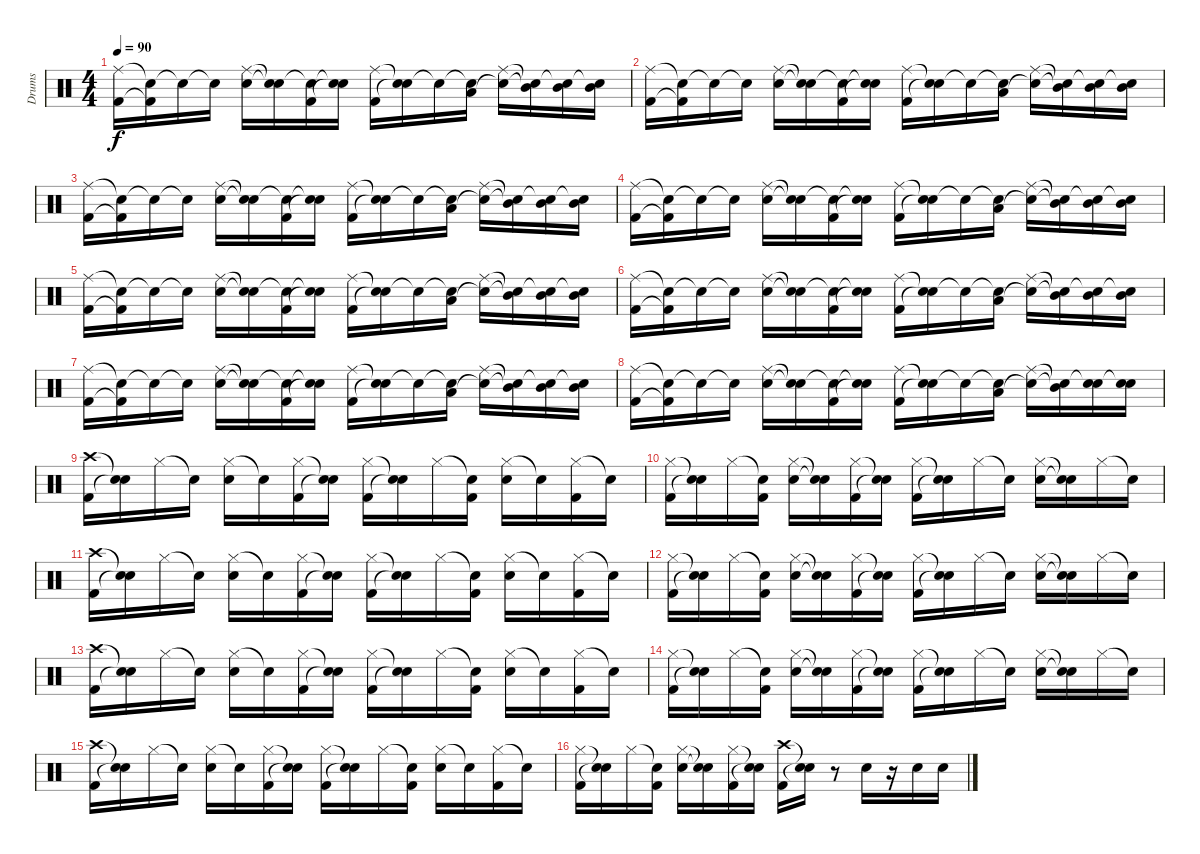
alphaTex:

\track ("Drums" "Drums") {instrument percussion}
\staff {score}
\articulation defaults
\ts (4 4)
\tempo 90
\clef neutral
\ks c
("Ride (middle)" "Kick (hit) 2").16{dy f} ("Snare (hit)"{t} "Kick (hit) 2"{t}).16 "Snare (hit)"{t}.16 "Snare (hit)"{t}.16 ("Ride (middle)" "Snare (hit) 2").16 ("Snare (hit)"{t} "Snare (hit)"{t}).16 ("Snare (hit)"{t} "Kick (hit) 2").16 ("Snare (hit)"{t} "Snare (hit)"{t}).16 ("Ride (middle)" "Kick (hit) 2").16 ("Snare (hit)"{t} "Snare (hit)"{t}).16 "Snare (hit)"{t}.16 ("Snare (hit)"{t} "Low Tom (hit)").16 ("Ride (middle)" "Snare (hit)"{t}).16 ("Snare (hit)"{t} "Mid Tom (hit)"{t}).16 ("Snare (hit)"{t} "Mid Tom (hit)").16 ("Snare (hit)"{t} "Mid Tom (hit)").16 |
("Ride (middle)" "Kick (hit) 2").16 ("Snare (hit)"{t} "Kick (hit) 2"{t}).16 "Snare (hit)"{t}.16 "Snare (hit)"{t}.16 ("Ride (middle)" "Snare (hit) 2").16 ("Snare (hit)"{t} "Snare (hit)"{t}).16 ("Snare (hit)"{t} "Kick (hit) 2").16 ("Snare (hit)"{t} "Snare (hit)"{t}).16 ("Ride (middle)" "Kick (hit) 2").16 ("Snare (hit)"{t} "Snare (hit)"{t}).16 "Snare (hit)"{t}.16 ("Snare (hit)"{t} "Low Tom (hit)").16 ("Ride (middle)" "Snare (hit)"{t}).16 ("Snare (hit)"{t} "Mid Tom (hit)"{t}).16 ("Snare (hit)"{t} "Mid Tom (hit)").16 ("Snare (hit)"{t} "Mid Tom (hit)").16 |
("Ride (middle)" "Kick (hit) 2").16 ("Snare (hit)"{t} "Kick (hit) 2"{t}).16 "Snare (hit)"{t}.16 "Snare (hit)"{t}.16 ("Ride (middle)" "Snare (hit) 2").16 ("Snare (hit)"{t} "Snare (hit)"{t}).16 ("Snare (hit)"{t} "Kick (hit) 2").16 ("Snare (hit)"{t} "Snare (hit)"{t}).16 ("Ride (middle)" "Kick (hit) 2").16 ("Snare (hit)"{t} "Snare (hit)"{t}).16 "Snare (hit)"{t}.16 ("Snare (hit)"{t} "Low Tom (hit)").16 ("Ride (middle)" "Snare (hit)"{t}).16 ("Snare (hit)"{t} "Mid Tom (hit)"{t}).16 ("Snare (hit)"{t} "Mid Tom (hit)").16 ("Snare (hit)"{t} "Mid Tom (hit)").16 |
("Ride (middle)" "Kick (hit) 2").16 ("Snare (hit)"{t} "Kick (hit) 2"{t}).16 "Snare (hit)"{t}.16 "Snare (hit)"{t}.16 ("Ride (middle)" "Snare (hit) 2").16 ("Snare (hit)"{t} "Snare (hit)"{t}).16 ("Snare (hit)"{t} "Kick (hit) 2").16 ("Snare (hit)"{t} "Snare (hit)"{t}).16 ("Ride (middle)" "Kick (hit) 2").16 ("Snare (hit)"{t} "Snare (hit)"{t}).16 "Snare (hit)"{t}.16 ("Snare (hit)"{t} "Low Tom (hit)").16 ("Ride (middle)" "Snare (hit)"{t}).16 ("Snare (hit)"{t} "Mid Tom (hit)"{t}).16 ("Snare (hit)"{t} "Mid Tom (hit)").16 ("Snare (hit)"{t} "Mid Tom (hit)").16 |
("Ride (middle)" "Kick (hit) 2").16 ("Snare (hit)"{t} "Kick (hit) 2"{t}).16 "Snare (hit)"{t}.16 "Snare (hit)"{t}.16 ("Ride (middle)" "Snare (hit) 2").16 ("Snare (hit)"{t} "Snare (hit)"{t}).16 ("Snare (hit)"{t} "Kick (hit) 2").16 ("Snare (hit)"{t} "Snare (hit)"{t}).16 ("Ride (middle)" "Kick (hit) 2").16 ("Snare (hit)"{t} "Snare (hit)"{t}).16 "Snare (hit)"{t}.16 ("Snare (hit)"{t} "Low Tom (hit)").16 ("Ride (middle)" "Snare (hit)"{t}).16 ("Snare (hit)"{t} "Mid Tom (hit)"{t}).16 ("Snare (hit)"{t} "Mid Tom (hit)").16 ("Snare (hit)"{t} "Mid Tom (hit)").16 |
("Ride (middle)" "Kick (hit) 2").16 ("Snare (hit)"{t} "Kick (hit) 2"{t}).16 "Snare (hit)"{t}.16 "Snare (hit)"{t}.16 ("Ride (middle)" "Snare (hit) 2").16 ("Snare (hit)"{t} "Snare (hit)"{t}).16 ("Snare (hit)"{t} "Kick (hit) 2").16 ("Snare (hit)"{t} "Snare (hit)"{t}).16 ("Ride (middle)" "Kick (hit) 2").16 ("Snare (hit)"{t} "Snare (hit)"{t}).16 "Snare (hit)"{t}.16 ("Snare (hit)"{t} "Low Tom (hit)").16 ("Ride (middle)" "Snare (hit)"{t}).16 ("Snare (hit)"{t} "Mid Tom (hit)"{t}).16 ("Snare (hit)"{t} "Mid Tom (hit)").16 ("Snare (hit)"{t} "Mid Tom (hit)").16 |
("Ride (middle)" "Kick (hit) 2").16 ("Snare (hit)"{t} "Kick (hit) 2"{t}).16 "Snare (hit)"{t}.16 "Snare (hit)"{t}.16 ("Ride (middle)" "Snare (hit) 2").16 ("Snare (hit)"{t} "Snare (hit)"{t}).16 ("Snare (hit)"{t} "Kick (hit) 2").16 ("Snare (hit)"{t} "Snare (hit)"{t}).16 ("Ride (middle)" "Kick (hit) 2").16 ("Snare (hit)"{t} "Snare (hit)"{t}).16 "Snare (hit)"{t}.16 ("Snare (hit)"{t} "Low Tom (hit)").16 ("Ride (middle)" "Snare (hit)"{t}).16 ("Snare (hit)"{t} "Mid Tom (hit)"{t}).16 ("Snare (hit)"{t} "Mid Tom (hit)").16 ("Snare (hit)"{t} "Mid Tom (hit)").16 |
("Ride (middle)" "Kick (hit) 2").16 ("Snare (hit)"{t} "Kick (hit) 2"{t}).16 "Snare (hit)"{t}.16 "Snare (hit)"{t}.16 ("Ride (middle)" "Snare (hit) 2").16 ("Snare (hit)"{t} "Snare (hit)"{t}).16 ("Snare (hit)"{t} "Kick (hit) 2").16 ("Snare (hit)"{t} "Snare (hit)"{t}).16 ("Ride (middle)" "Kick (hit) 2").16 ("Snare (hit)"{t} "Snare (hit)"{t}).16 "Snare (hit)"{t}.16 ("Snare (hit)"{t} "Low Tom (hit)").16 ("Ride (middle)" "Snare (hit)"{t}).16 ("Snare (hit)"{t} "Mid Tom (hit)"{t}).16 ("Snare (hit)"{t} "Snare (hit) 2").16 ("Snare (hit)"{t} "Snare (hit) 2").16 |
("Crash high (hit)" "Kick (hit) 2").16 ("Snare (hit)"{t} "Snare (hit)"{t}).16 "Hi-Hat (closed)".16 "Snare (hit)"{t}.16 ("Hi-Hat (closed)" "Snare (hit) 2").16 "Snare (hit)"{t}.16 ("Hi-Hat (closed)" "Kick (hit) 2").16 ("Snare (hit)"{t} "Snare (hit)"{t}).16 ("Hi-Hat (closed)" "Kick (hit) 2").16 ("Snare (hit)"{t} "Snare (hit)"{t}).16 "Hi-Hat (closed)".16 ("Snare (hit)"{t} "Kick (hit) 2").16 ("Hi-Hat (closed)" "Snare (hit) 2").16 "Snare (hit)"{t}.16 ("Hi-Hat (closed)" "Kick (hit) 2").16 "Snare (hit)"{t}.16 |
("Hi-Hat (closed)" "Kick (hit) 2").16 ("Snare (hit)"{t} "Snare (hit)"{t}).16 "Hi-Hat (closed)".16 ("Snare (hit)"{t} "Kick (hit) 2").16 ("Hi-Hat (closed)" "Snare (hit) 2").16 ("Snare (hit)"{t} "Snare (hit)"{t}).16 ("Hi-Hat (closed)" "Kick (hit) 2").16 ("Snare (hit)"{t} "Snare (hit)"{t}).16 ("Hi-Hat (closed)" "Kick (hit) 2").16 ("Snare (hit)"{t} "Snare (hit)"{t}).16 "Hi-Hat (closed)".16 "Snare (hit)"{t}.16 ("Hi-Hat (closed)" "Snare (hit) 2").16 ("Snare (hit)"{t} "Snare (hit)"{t}).16 "Hi-Hat (closed)".16 "Snare (hit)"{t}.16 |
("Crash high (hit)" "Kick (hit) 2").16 ("Snare (hit)"{t} "Snare (hit)"{t}).16 "Hi-Hat (closed)".16 "Snare (hit)"{t}.16 ("Hi-Hat (closed)" "Snare (hit) 2").16 "Snare (hit)"{t}.16 ("Hi-Hat (closed)" "Kick (hit) 2").16 ("Snare (hit)"{t} "Snare (hit)"{t}).16 ("Hi-Hat (closed)" "Kick (hit) 2").16 ("Snare (hit)"{t} "Snare (hit)"{t}).16 "Hi-Hat (closed)".16 ("Snare (hit)"{t} "Kick (hit) 2").16 ("Hi-Hat (closed)" "Snare (hit) 2").16 "Snare (hit)"{t}.16 ("Hi-Hat (closed)" "Kick (hit) 2").16 "Snare (hit)"{t}.16 |
("Hi-Hat (closed)" "Kick (hit) 2").16 ("Snare (hit)"{t} "Snare (hit)"{t}).16 "Hi-Hat (closed)".16 ("Snare (hit)"{t} "Kick (hit) 2").16 ("Hi-Hat (closed)" "Snare (hit) 2").16 ("Snare (hit)"{t} "Snare (hit)"{t}).16 ("Hi-Hat (closed)" "Kick (hit) 2").16 ("Snare (hit)"{t} "Snare (hit)"{t}).16 ("Hi-Hat (closed)" "Kick (hit) 2").16 ("Snare (hit)"{t} "Snare (hit)"{t}).16 "Hi-Hat (closed)".16 "Snare (hit)"{t}.16 ("Hi-Hat (closed)" "Snare (hit) 2").16 ("Snare (hit)"{t} "Snare (hit)"{t}).16 "Hi-Hat (closed)".16 "Snare (hit)"{t}.16 |
("Crash high (hit)" "Kick (hit) 2").16 ("Snare (hit)"{t} "Snare (hit)"{t}).16 "Hi-Hat (closed)".16 "Snare (hit)"{t}.16 ("Hi-Hat (closed)" "Snare (hit) 2").16 "Snare (hit)"{t}.16 ("Hi-Hat (closed)" "Kick (hit) 2").16 ("Snare (hit)"{t} "Snare (hit)"{t}).16 ("Hi-Hat (closed)" "Kick (hit) 2").16 ("Snare (hit)"{t} "Snare (hit)"{t}).16 "Hi-Hat (closed)".16 ("Snare (hit)"{t} "Kick (hit) 2").16 ("Hi-Hat (closed)" "Snare (hit) 2").16 "Snare (hit)"{t}.16 ("Hi-Hat (closed)" "Kick (hit) 2").16 "Snare (hit)"{t}.16 |
("Hi-Hat (closed)" "Kick (hit) 2").16 ("Snare (hit)"{t} "Snare (hit)"{t}).16 "Hi-Hat (closed)".16 ("Snare (hit)"{t} "Kick (hit) 2").16 ("Hi-Hat (closed)" "Snare (hit) 2").16 ("Snare (hit)"{t} "Snare (hit)"{t}).16 ("Hi-Hat (closed)" "Kick (hit) 2").16 ("Snare (hit)"{t} "Snare (hit)"{t}).16 ("Hi-Hat (closed)" "Kick (hit) 2").16 ("Snare (hit)"{t} "Snare (hit)"{t}).16 "Hi-Hat (closed)".16 "Snare (hit)"{t}.16 ("Hi-Hat (closed)" "Snare (hit) 2").16 ("Snare (hit)"{t} "Snare (hit)"{t}).16 "Hi-Hat (closed)".16 "Snare (hit)"{t}.16 |
("Crash high (hit)" "Kick (hit) 2").16 ("Snare (hit)"{t} "Snare (hit)"{t}).16 "Hi-Hat (closed)".16 "Snare (hit)"{t}.16 ("Hi-Hat (closed)" "Snare (hit) 2").16 "Snare (hit)"{t}.16 ("Hi-Hat (closed)" "Kick (hit) 2").16 ("Snare (hit)"{t} "Snare (hit)"{t}).16 ("Hi-Hat (closed)" "Kick (hit) 2").16 ("Snare (hit)"{t} "Snare (hit)"{t}).16 "Hi-Hat (closed)".16 ("Snare (hit)"{t} "Kick (hit) 2").16 ("Hi-Hat (closed)" "Snare (hit) 2").16 "Snare (hit)"{t}.16 ("Hi-Hat (closed)" "Kick (hit) 2").16 "Snare (hit)"{t}.16 |
("Hi-Hat (closed)" "Kick (hit) 2").16 ("Snare (hit)"{t} "Snare (hit)"{t}).16 "Hi-Hat (closed)".16 ("Snare (hit)"{t} "Kick (hit) 2").16 ("Hi-Hat (closed)" "Snare (hit) 2").16 ("Snare (hit)"{t} "Snare (hit)"{t}).16 ("Hi-Hat (closed)" "Kick (hit) 2").16 ("Snare (hit)"{t} "Snare (hit)"{t}).16 ("Crash high (hit)" "Kick (hit) 2").16 ("Snare (hit)"{t} "Snare (hit)"{t}).16 r.8 "Snare (hit) 2".16 r.16 "Snare (hit) 2".16 "Snare (hit) 2".16
